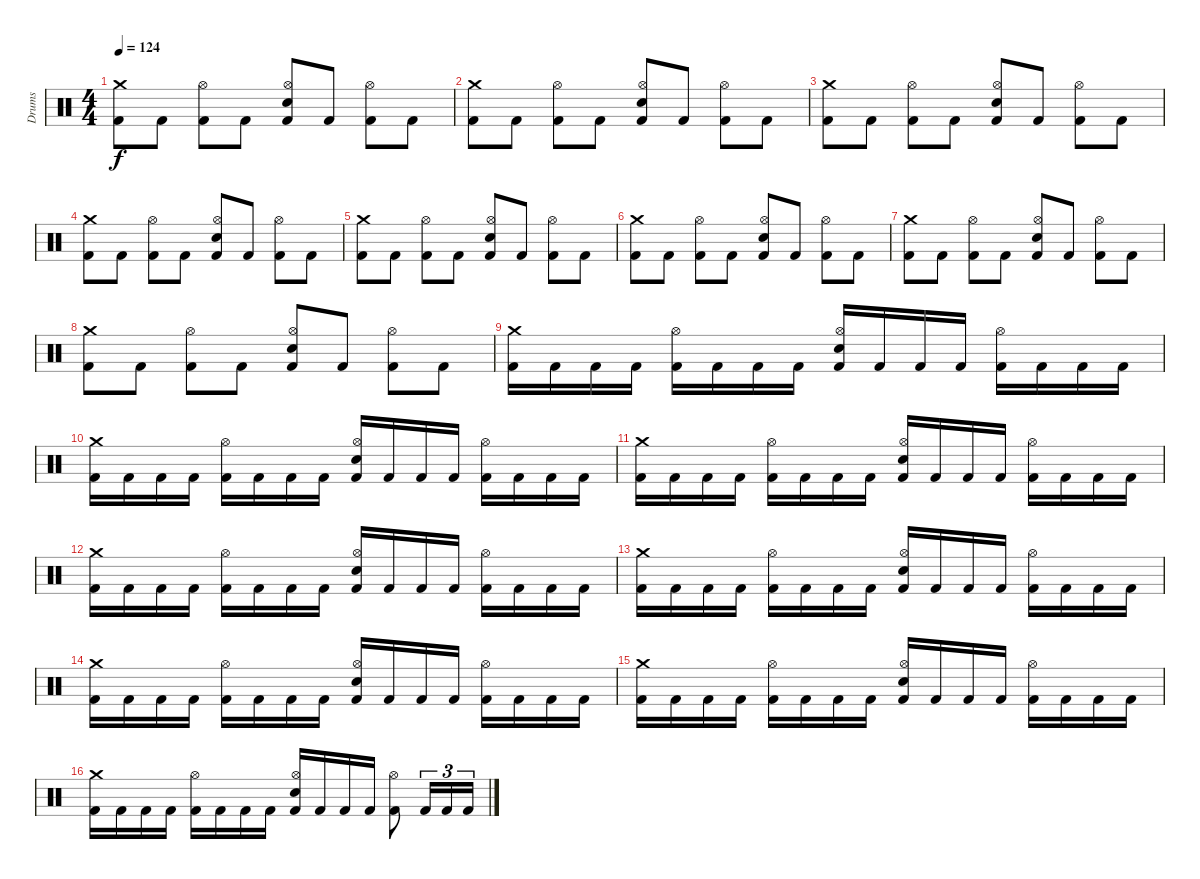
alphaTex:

\track ("Drums" "Drums") {instrument percussion}
\staff {score}
\articulation defaults
\ts (4 4)
\tempo 124
\clef neutral
\ks c
("Crash medium (hit)" "Kick (hit) 2").8{dy f} "Kick (hit) 2".8 ("Hi-Hat (open)" "Kick (hit) 2").8 "Kick (hit) 2".8 ("Hi-Hat (open)" "Electric Snare (hit)" "Kick (hit) 2").8 "Kick (hit) 2".8 ("Hi-Hat (open)" "Kick (hit) 2").8 "Kick (hit) 2".8 |
("Crash medium (hit)" "Kick (hit) 2").8 "Kick (hit) 2".8 ("Hi-Hat (open)" "Kick (hit) 2").8 "Kick (hit) 2".8 ("Hi-Hat (open)" "Electric Snare (hit)" "Kick (hit) 2").8 "Kick (hit) 2".8 ("Hi-Hat (open)" "Kick (hit) 2").8 "Kick (hit) 2".8 |
("Crash medium (hit)" "Kick (hit) 2").8 "Kick (hit) 2".8 ("Hi-Hat (open)" "Kick (hit) 2").8 "Kick (hit) 2".8 ("Hi-Hat (open)" "Electric Snare (hit)" "Kick (hit) 2").8 "Kick (hit) 2".8 ("Hi-Hat (open)" "Kick (hit) 2").8 "Kick (hit) 2".8 |
("Crash medium (hit)" "Kick (hit) 2").8 "Kick (hit) 2".8 ("Hi-Hat (open)" "Kick (hit) 2").8 "Kick (hit) 2".8 ("Hi-Hat (open)" "Electric Snare (hit)" "Kick (hit) 2").8 "Kick (hit) 2".8 ("Hi-Hat (open)" "Kick (hit) 2").8 "Kick (hit) 2".8 |
("Crash medium (hit)" "Kick (hit) 2").8 "Kick (hit) 2".8 ("Hi-Hat (open)" "Kick (hit) 2").8 "Kick (hit) 2".8 ("Hi-Hat (open)" "Electric Snare (hit)" "Kick (hit) 2").8 "Kick (hit) 2".8 ("Hi-Hat (open)" "Kick (hit) 2").8 "Kick (hit) 2".8 |
("Crash medium (hit)" "Kick (hit) 2").8 "Kick (hit) 2".8 ("Hi-Hat (open)" "Kick (hit) 2").8 "Kick (hit) 2".8 ("Hi-Hat (open)" "Electric Snare (hit)" "Kick (hit) 2").8 "Kick (hit) 2".8 ("Hi-Hat (open)" "Kick (hit) 2").8 "Kick (hit) 2".8 |
("Crash medium (hit)" "Kick (hit) 2").8 "Kick (hit) 2".8 ("Hi-Hat (open)" "Kick (hit) 2").8 "Kick (hit) 2".8 ("Hi-Hat (open)" "Electric Snare (hit)" "Kick (hit) 2").8 "Kick (hit) 2".8 ("Hi-Hat (open)" "Kick (hit) 2").8 "Kick (hit) 2".8 |
("Crash medium (hit)" "Kick (hit) 2").8 "Kick (hit) 2".8 ("Hi-Hat (open)" "Kick (hit) 2").8 "Kick (hit) 2".8 ("Hi-Hat (open)" "Electric Snare (hit)" "Kick (hit) 2").8 "Kick (hit) 2".8 ("Hi-Hat (open)" "Kick (hit) 2").8 "Kick (hit) 2".8 |
("Crash medium (hit)" "Kick (hit) 2").16 "Kick (hit) 2".16 "Kick (hit) 2".16 "Kick (hit) 2".16 ("Hi-Hat (open)" "Kick (hit) 2").16 "Kick (hit) 2".16 "Kick (hit) 2".16 "Kick (hit) 2".16 ("Hi-Hat (open)" "Electric Snare (hit)" "Kick (hit) 2").16 "Kick (hit) 2".16 "Kick (hit) 2".16 "Kick (hit) 2".16 ("Hi-Hat (open)" "Kick (hit) 2").16 "Kick (hit) 2".16 "Kick (hit) 2".16 "Kick (hit) 2".16 |
("Crash medium (hit)" "Kick (hit) 2").16 "Kick (hit) 2".16 "Kick (hit) 2".16 "Kick (hit) 2".16 ("Hi-Hat (open)" "Kick (hit) 2").16 "Kick (hit) 2".16 "Kick (hit) 2".16 "Kick (hit) 2".16 ("Hi-Hat (open)" "Electric Snare (hit)" "Kick (hit) 2").16 "Kick (hit) 2".16 "Kick (hit) 2".16 "Kick (hit) 2".16 ("Hi-Hat (open)" "Kick (hit) 2").16 "Kick (hit) 2".16 "Kick (hit) 2".16 "Kick (hit) 2".16 |
("Crash medium (hit)" "Kick (hit) 2").16 "Kick (hit) 2".16 "Kick (hit) 2".16 "Kick (hit) 2".16 ("Hi-Hat (open)" "Kick (hit) 2").16 "Kick (hit) 2".16 "Kick (hit) 2".16 "Kick (hit) 2".16 ("Hi-Hat (open)" "Electric Snare (hit)" "Kick (hit) 2").16 "Kick (hit) 2".16 "Kick (hit) 2".16 "Kick (hit) 2".16 ("Hi-Hat (open)" "Kick (hit) 2").16 "Kick (hit) 2".16 "Kick (hit) 2".16 "Kick (hit) 2".16 |
("Crash medium (hit)" "Kick (hit) 2").16 "Kick (hit) 2".16 "Kick (hit) 2".16 "Kick (hit) 2".16 ("Hi-Hat (open)" "Kick (hit) 2").16 "Kick (hit) 2".16 "Kick (hit) 2".16 "Kick (hit) 2".16 ("Hi-Hat (open)" "Electric Snare (hit)" "Kick (hit) 2").16 "Kick (hit) 2".16 "Kick (hit) 2".16 "Kick (hit) 2".16 ("Hi-Hat (open)" "Kick (hit) 2").16 "Kick (hit) 2".16 "Kick (hit) 2".16 "Kick (hit) 2".16 |
("Crash medium (hit)" "Kick (hit) 2").16 "Kick (hit) 2".16 "Kick (hit) 2".16 "Kick (hit) 2".16 ("Hi-Hat (open)" "Kick (hit) 2").16 "Kick (hit) 2".16 "Kick (hit) 2".16 "Kick (hit) 2".16 ("Hi-Hat (open)" "Electric Snare (hit)" "Kick (hit) 2").16 "Kick (hit) 2".16 "Kick (hit) 2".16 "Kick (hit) 2".16 ("Hi-Hat (open)" "Kick (hit) 2").16 "Kick (hit) 2".16 "Kick (hit) 2".16 "Kick (hit) 2".16 |
("Crash medium (hit)" "Kick (hit) 2").16 "Kick (hit) 2".16 "Kick (hit) 2".16 "Kick (hit) 2".16 ("Hi-Hat (open)" "Kick (hit) 2").16 "Kick (hit) 2".16 "Kick (hit) 2".16 "Kick (hit) 2".16 ("Hi-Hat (open)" "Electric Snare (hit)" "Kick (hit) 2").16 "Kick (hit) 2".16 "Kick (hit) 2".16 "Kick (hit) 2".16 ("Hi-Hat (open)" "Kick (hit) 2").16 "Kick (hit) 2".16 "Kick (hit) 2".16 "Kick (hit) 2".16 |
("Crash medium (hit)" "Kick (hit) 2").16 "Kick (hit) 2".16 "Kick (hit) 2".16 "Kick (hit) 2".16 ("Hi-Hat (open)" "Kick (hit) 2").16 "Kick (hit) 2".16 "Kick (hit) 2".16 "Kick (hit) 2".16 ("Hi-Hat (open)" "Electric Snare (hit)" "Kick (hit) 2").16 "Kick (hit) 2".16 "Kick (hit) 2".16 "Kick (hit) 2".16 ("Hi-Hat (open)" "Kick (hit) 2").16 "Kick (hit) 2".16 "Kick (hit) 2".16 "Kick (hit) 2".16 |
("Crash medium (hit)" "Kick (hit) 2").16 "Kick (hit) 2".16 "Kick (hit) 2".16 "Kick (hit) 2".16 ("Hi-Hat (open)" "Kick (hit) 2").16 "Kick (hit) 2".16 "Kick (hit) 2".16 "Kick (hit) 2".16 ("Hi-Hat (open)" "Electric Snare (hit)" "Kick (hit) 2").16 "Kick (hit) 2".16 "Kick (hit) 2".16 "Kick (hit) 2".16 ("Hi-Hat (open)" "Kick (hit) 2").8 "Kick (hit) 2".16{tu (3 2)} "Kick (hit) 2".16{tu (3 2)} "Kick (hit) 2".16{tu (3 2)}
